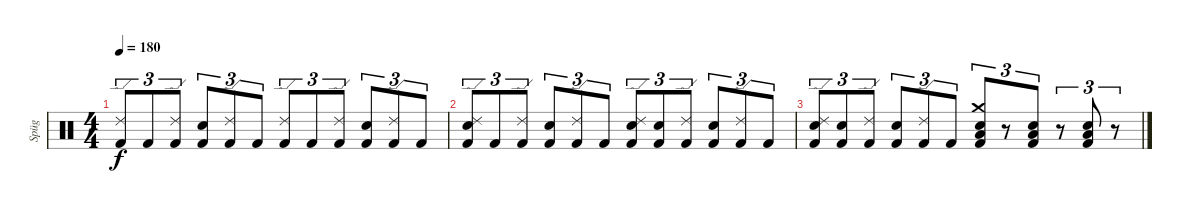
\track ("Spüg" "Spüg") {instrument percussion}
\staff {score}
\articulation defaults
\ts (4 4)
\tempo 180
\clef neutral
\ks c
("Ride (edge) 2" "Kick (hit) 2").8{tu (3 2) dy f} "Kick (hit) 2".8{tu (3 2)} ("Ride (edge) 2" "Kick (hit) 2").8{tu (3 2)} ("Electric Snare (hit)" "Kick (hit) 2").8{tu (3 2)} ("Ride (edge) 2" "Kick (hit) 2").8{tu (3 2)} "Kick (hit) 2".8{tu (3 2)} ("Ride (edge) 2" "Kick (hit) 2").8{tu (3 2)} "Kick (hit) 2".8{tu (3 2)} ("Ride (edge) 2" "Kick (hit) 2").8{tu (3 2)} ("Electric Snare (hit)" "Kick (hit) 2").8{tu (3 2)} ("Ride (edge) 2" "Kick (hit) 2").8{tu (3 2)} "Kick (hit) 2".8{tu (3 2)} |
("Ride (edge) 2" "Electric Snare (hit)" "Kick (hit) 2").8{tu (3 2)} "Kick (hit) 2".8{tu (3 2)} ("Ride (edge) 2" "Kick (hit) 2").8{tu (3 2)} ("Electric Snare (hit)" "Kick (hit) 2").8{tu (3 2)} ("Ride (edge) 2" "Kick (hit) 2").8{tu (3 2)} "Kick (hit) 2".8{tu (3 2)} ("Ride (edge) 2" "Electric Snare (hit)" "Kick (hit) 2").8{tu (3 2)} ("Electric Snare (hit)" "Kick (hit) 2").8{tu (3 2)} ("Ride (edge) 2" "Kick (hit) 2").8{tu (3 2)} ("Electric Snare (hit)" "Kick (hit) 2").8{tu (3 2)} ("Ride (edge) 2" "Kick (hit) 2").8{tu (3 2)} "Kick (hit) 2".8{tu (3 2)} |
("Ride (edge) 2" "Electric Snare (hit)" "Kick (hit) 2").8{tu (3 2)} ("Electric Snare (hit)" "Kick (hit) 2").8{tu (3 2)} ("Ride (edge) 2" "Kick (hit) 2").8{tu (3 2)} ("Electric Snare (hit)" "Kick (hit) 2").8{tu (3 2)} ("Ride (edge) 2" "Kick (hit) 2").8{tu (3 2)} "Kick (hit) 2".8{tu (3 2)} ("Crash medium (hit)" "Electric Snare (hit)" "Low Floor Tom (hit)" "Kick (hit) 2").8{tu (3 2)} r.8{tu (3 2)} ("Electric Snare (hit)" "Low Floor Tom (hit)" "Kick (hit) 2").8{tu (3 2)} r.8{tu (3 2)} ("Electric Snare (hit)" "Low Floor Tom (hit)" "Kick (hit) 2").8{tu (3 2)} r.8{tu (3 2)}
